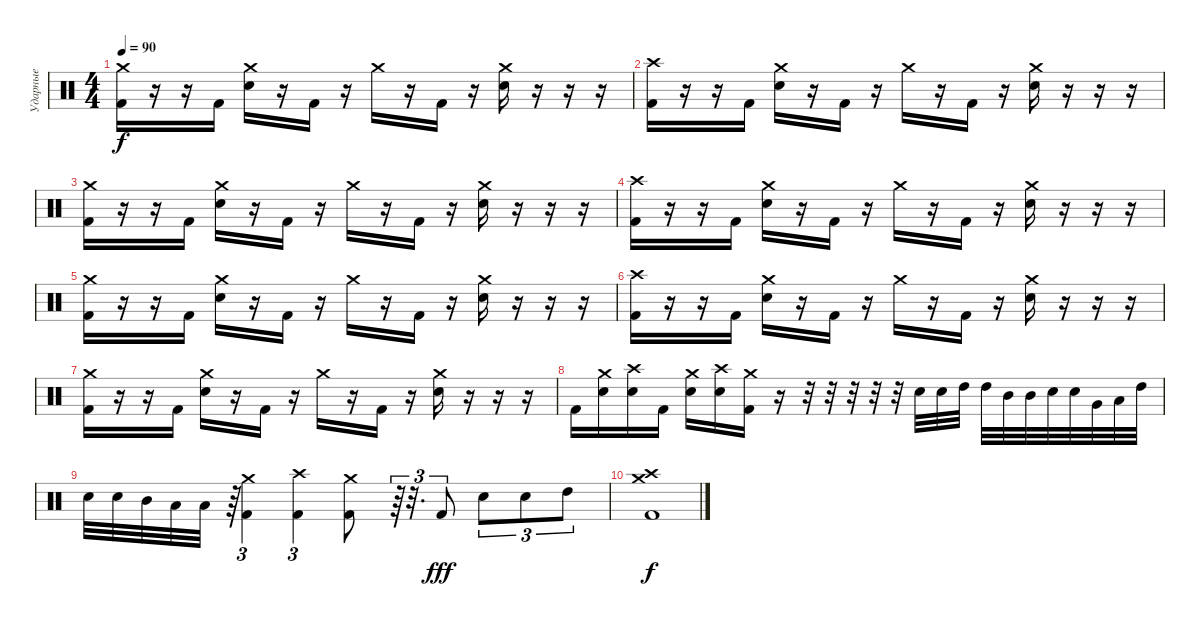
\track ("Ударные" "Ударные") {instrument percussion}
\staff {score}
\articulation defaults
\ts (4 4)
\tempo 90
\clef neutral
\ks c
("Crash medium (hit)" "Kick (hit) 2").16{dy f} r.16 r.16 "Kick (hit) 2".16 ("Crash medium (hit)" "Electric Snare (hit)").16 r.16 "Kick (hit) 2".16 r.16 "Crash medium (hit)".16 r.16 "Kick (hit) 2".16 r.16 ("Crash medium (hit)" "Electric Snare (hit)").16 r.16 r.16 r.16 |
("Crash high (hit)" "Kick (hit) 2").16 r.16 r.16 "Kick (hit) 2".16 ("Crash medium (hit)" "Electric Snare (hit)").16 r.16 "Kick (hit) 2".16 r.16 "Crash medium (hit)".16 r.16 "Kick (hit) 2".16 r.16 ("Crash medium (hit)" "Electric Snare (hit)").16 r.16 r.16 r.16 |
("Crash medium (hit)" "Kick (hit) 2").16 r.16 r.16 "Kick (hit) 2".16 ("Crash medium (hit)" "Electric Snare (hit)").16 r.16 "Kick (hit) 2".16 r.16 "Crash medium (hit)".16 r.16 "Kick (hit) 2".16 r.16 ("Crash medium (hit)" "Electric Snare (hit)").16 r.16 r.16 r.16 |
("Crash high (hit)" "Kick (hit) 2").16 r.16 r.16 "Kick (hit) 2".16 ("Crash medium (hit)" "Electric Snare (hit)").16 r.16 "Kick (hit) 2".16 r.16 "Crash medium (hit)".16 r.16 "Kick (hit) 2".16 r.16 ("Crash medium (hit)" "Electric Snare (hit)").16 r.16 r.16 r.16 |
("Crash medium (hit)" "Kick (hit) 2").16 r.16 r.16 "Kick (hit) 2".16 ("Crash medium (hit)" "Electric Snare (hit)").16 r.16 "Kick (hit) 2".16 r.16 "Crash medium (hit)".16 r.16 "Kick (hit) 2".16 r.16 ("Crash medium (hit)" "Electric Snare (hit)").16 r.16 r.16 r.16 |
("Crash high (hit)" "Kick (hit) 2").16 r.16 r.16 "Kick (hit) 2".16 ("Crash medium (hit)" "Electric Snare (hit)").16 r.16 "Kick (hit) 2".16 r.16 "Crash medium (hit)".16 r.16 "Kick (hit) 2".16 r.16 ("Crash medium (hit)" "Electric Snare (hit)").16 r.16 r.16 r.16 |
("Crash medium (hit)" "Kick (hit) 2").16 r.16 r.16 "Kick (hit) 2".16 ("Crash medium (hit)" "Electric Snare (hit)").16 r.16 "Kick (hit) 2".16 r.16 "Crash medium (hit)".16 r.16 "Kick (hit) 2".16 r.16 ("Crash medium (hit)" "Electric Snare (hit)").16 r.16 r.16 r.16 |
"Kick (hit) 2".16 ("Crash medium (hit)" "Electric Snare (hit)").16 ("Crash high (hit)" "Electric Snare (hit)").16 "Kick (hit) 2".16 ("Crash medium (hit)" "Electric Snare (hit)").16 ("Crash high (hit)" "Electric Snare (hit)").16 ("Crash medium (hit)" "Kick (hit) 2").16 r.16 r.32 r.32 r.32 r.32 r.32 "Electric Snare (hit)".32 "Electric Snare (hit)".32 "High Tom (hit)".32 "High Tom (hit)".32 "Mid Tom (hit)".32 "Mid Tom (hit)".32 "Electric Snare (hit)".32 "Electric Snare (hit)".32 "Very Low Tom (hit)".32 "Low Floor Tom (hit)".32 "High Tom (hit)".32 |
"Electric Snare (hit)".32 "Electric Snare (hit)".32 "Mid Tom (hit)".32 "Low Tom (hit)".32 "Low Tom (hit)".32 r.64{tu (3 2)} ("Crash medium (hit)" "Kick (hit) 2").4{tu (3 2)} ("Crash high (hit)" "Kick (hit) 2").4{tu (3 2)} ("Crash medium (hit)" "Kick (hit) 2").8 r.64{tu (3 2)} r.32{d tu (3 2)} "Kick (hit) 2".8{tu (3 2) dy fff} "Electric Snare (hit)".8{tu (3 2)} "Electric Snare (hit)".8{tu (3 2)} "High Tom (hit)".8{tu (3 2)} |
("Crash high (hit)" "Crash medium (hit)" "Kick (hit) 2").1{dy f}
